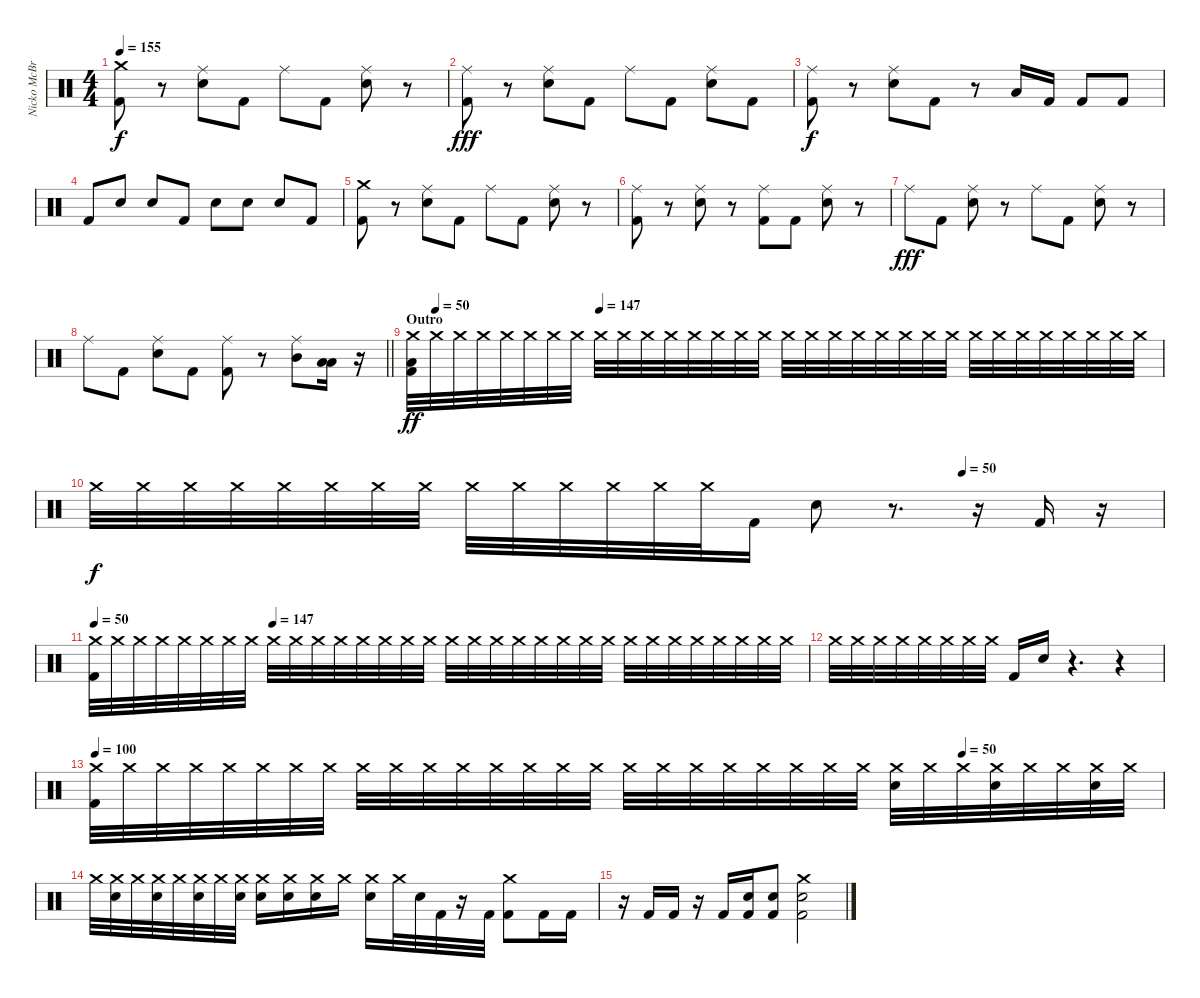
\track ("Nicko McBrain" "Nicko McBr") {instrument percussion}
\staff {score}
\articulation defaults
\ts (4 4)
\tempo 155
\clef neutral
\ks c
("Crash medium (hit)" "Kick (hit) 2").8{dy f} r.8 ("Ride (middle)" "Snare (hit) 2").8 "Kick (hit) 2".8 "Ride (middle)".8 "Kick (hit) 2".8 ("Ride (middle)" "Snare (hit) 2").8 r.8 |
("Ride (middle)" "Kick (hit) 2").8{dy fff} r.8 ("Ride (middle)" "Snare (hit) 2").8 "Kick (hit) 2".8 "Ride (middle)".8 "Kick (hit) 2".8 ("Ride (middle)" "Snare (hit) 2").8 "Kick (hit) 2".8 |
("Ride (middle)" "Kick (hit) 2").8{dy f} r.8 ("Ride (middle)" "Snare (hit) 2").8 "Kick (hit) 2".8 r.8 "Low Floor Tom (hit)".16 "Kick (hit) 2".16 "Kick (hit) 2".8 "Kick (hit) 2".8 |
"Kick (hit) 2".8 "Snare (hit) 2".8 "Snare (hit) 2".8 "Kick (hit) 2".8 "Snare (hit) 2".8 "Snare (hit) 2".8 "Snare (hit) 2".8 "Kick (hit) 2".8 |
("Crash medium (hit)" "Kick (hit) 2").8 r.8 ("Ride (middle)" "Snare (hit) 2").8 "Kick (hit) 2".8 "Ride (middle)".8 "Kick (hit) 2".8 ("Ride (middle)" "Snare (hit) 2").8 r.8 |
("Ride (middle)" "Kick (hit) 2").8 r.8 ("Ride (middle)" "Snare (hit) 2").8 r.8 ("Ride (middle)" "Kick (hit) 2").8 "Kick (hit) 2".8 ("Ride (middle)" "Snare (hit) 2").8 r.8 |
"Ride (middle)".8{dy fff} "Kick (hit) 2".8 ("Ride (middle)" "Snare (hit) 2").8 r.8 "Ride (middle)".8 "Kick (hit) 2".8 ("Ride (middle)" "Snare (hit) 2").8 r.8 |
\barLineRight lightlight "Ride (middle)".8 "Kick (hit) 2".8
("Ride (middle)" "Snare (hit) 2").8 "Kick (hit) 2".8 ("Ride (middle)" "Kick (hit) 2").8 r.8 ("Ride (middle)" "Mid Tom (hit)").8 ("Low Floor Tom (hit)" "Low Floor Tom (hit)").16 r.16{volume 7} |
\section ("" "Outro")
\tempo (50 0.03125)
\tempo (147 0.25)
("Crash medium (hit)" "Low Floor Tom (hit)" "Kick (hit) 2").32{dy ff volume 13} "Crash medium (hit)".32 "Crash medium (hit)".32 "Crash medium (hit)".32 "Crash medium (hit)".32 "Crash medium (hit)".32 "Crash medium (hit)".32 "Crash medium (hit)".32 "Crash medium (hit)".32 "Crash medium (hit)".32 "Crash medium (hit)".32 "Crash medium (hit)".32 "Crash medium (hit)".32 "Crash medium (hit)".32 "Crash medium (hit)".32 "Crash medium (hit)".32 "Crash medium (hit)".32 "Crash medium (hit)".32 "Crash medium (hit)".32 "Crash medium (hit)".32 "Crash medium (hit)".32 "Crash medium (hit)".32 "Crash medium (hit)".32 "Crash medium (hit)".32 "Crash medium (hit)".32 "Crash medium (hit)".32 "Crash medium (hit)".32 "Crash medium (hit)".32 "Crash medium (hit)".32 "Crash medium (hit)".32 "Crash medium (hit)".32 "Crash medium (hit)".32 |
\tempo (50 0.8125)
"Crash medium (hit)".32{dy f} "Crash medium (hit)".32 "Crash medium (hit)".32 "Crash medium (hit)".32 "Crash medium (hit)".32 "Crash medium (hit)".32 "Crash medium (hit)".32 "Crash medium (hit)".32 "Crash medium (hit)".32 "Crash medium (hit)".32 "Crash medium (hit)".32 "Crash medium (hit)".32 "Crash medium (hit)".32 "Crash medium (hit)".32 "Kick (hit) 2".16 "Snare (hit) 2".8 r.8{d} r.16 "Kick (hit) 2".16 r.16{volume 7} |
\tempo 50
\tempo (147 0.25)
("Crash medium (hit)" "Kick (hit) 2").32{volume 13} "Crash medium (hit)".32 "Crash medium (hit)".32 "Crash medium (hit)".32 "Crash medium (hit)".32 "Crash medium (hit)".32 "Crash medium (hit)".32 "Crash medium (hit)".32 "Crash medium (hit)".32 "Crash medium (hit)".32 "Crash medium (hit)".32 "Crash medium (hit)".32 "Crash medium (hit)".32 "Crash medium (hit)".32 "Crash medium (hit)".32 "Crash medium (hit)".32 "Crash medium (hit)".32 "Crash medium (hit)".32 "Crash medium (hit)".32 "Crash medium (hit)".32 "Crash medium (hit)".32 "Crash medium (hit)".32 "Crash medium (hit)".32 "Crash medium (hit)".32 "Crash medium (hit)".32 "Crash medium (hit)".32 "Crash medium (hit)".32 "Crash medium (hit)".32 "Crash medium (hit)".32 "Crash medium (hit)".32 "Crash medium (hit)".32 "Crash medium (hit)".32 |
"Crash medium (hit)".32 "Crash medium (hit)".32 "Crash medium (hit)".32 "Crash medium (hit)".32 "Crash medium (hit)".32 "Crash medium (hit)".32 "Crash medium (hit)".32 "Crash medium (hit)".32 "Kick (hit) 2".16 "Snare (hit) 2".16 r.4{d} r.4 |
\tempo 100
\tempo (50 0.8125)
("Crash medium (hit)" "Kick (hit) 2").32 "Crash medium (hit)".32 "Crash medium (hit)".32 "Crash medium (hit)".32 "Crash medium (hit)".32 "Crash medium (hit)".32 "Crash medium (hit)".32 "Crash medium (hit)".32 "Crash medium (hit)".32 "Crash medium (hit)".32 "Crash medium (hit)".32 "Crash medium (hit)".32 "Crash medium (hit)".32 "Crash medium (hit)".32 "Crash medium (hit)".32 "Crash medium (hit)".32 "Crash medium (hit)".32 "Crash medium (hit)".32 "Crash medium (hit)".32 "Crash medium (hit)".32 "Crash medium (hit)".32 "Crash medium (hit)".32 "Crash medium (hit)".32 "Crash medium (hit)".32 ("Crash medium (hit)" "Snare (hit) 2").32 "Crash medium (hit)".32 "Crash medium (hit)".32 ("Crash medium (hit)" "Snare (hit) 2").32 "Crash medium (hit)".32 "Crash medium (hit)".32 ("Crash medium (hit)" "Snare (hit) 2").32 "Crash medium (hit)".32 |
"Crash medium (hit)".32 ("Crash medium (hit)" "Snare (hit) 2").32 "Crash medium (hit)".32 ("Crash medium (hit)" "Snare (hit) 2").32 "Crash medium (hit)".32 ("Crash medium (hit)" "Snare (hit) 2").32 "Crash medium (hit)".32 ("Crash medium (hit)" "Snare (hit) 2").32 ("Crash medium (hit)" "Snare (hit) 2").16 ("Crash medium (hit)" "Snare (hit) 2").16 ("Crash medium (hit)" "Snare (hit) 2").16 "Crash medium (hit)".16 ("Crash medium (hit)" "Snare (hit) 2").16 "Crash medium (hit)".32 "Snare (hit) 2".32 "Kick (hit) 2".32 r.16 "Kick (hit) 2".32 ("Crash medium (hit)" "Kick (hit) 2").8 "Kick (hit) 2".16 "Kick (hit) 2".16 |
r.16 "Kick (hit) 2".16 "Kick (hit) 2".16 r.16 "Kick (hit) 2".16 ("Snare (hit) 2" "Kick (hit) 2").16 ("Snare (hit) 2" "Kick (hit) 2").8 ("Crash medium (hit)" "Snare (hit) 2" "Kick (hit) 2").2
